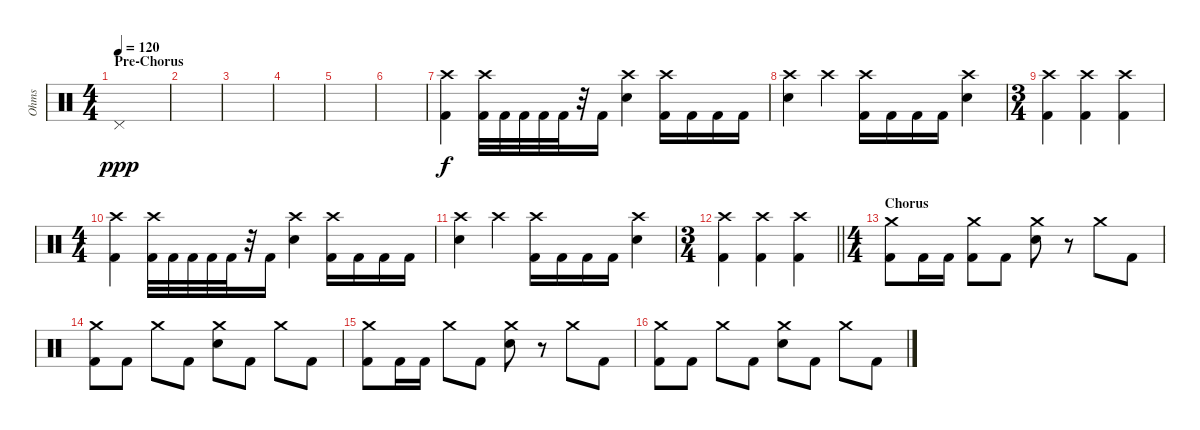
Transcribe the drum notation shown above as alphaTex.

\track ("Ohms" "Ohms") {instrument percussion}
\staff {score}
\articulation defaults
\ts (4 4)
\section ("" "Pre-Chorus")
\tempo 120
\clef neutral
\ks c "Pedal Hi-Hat (hit)".1{dy ppp}
|
|
|
|
|
|
("Crash high (hit)" "Kick (hit) 2").4{dy f} ("Crash high (hit)" "Kick (hit) 2").32 "Kick (hit) 2".32 "Kick (hit) 2".32 "Kick (hit) 2".32 "Kick (hit) 2".32 r.32 "Kick (hit) 2".16 ("Crash high (hit)" "Snare (hit) 2").4 ("Crash high (hit)" "Kick (hit) 2").16 "Kick (hit) 2".16 "Kick (hit) 2".16 "Kick (hit) 2".16 |
("Crash high (hit)" "Snare (hit) 2").4 "Crash high (hit)".4 ("Crash high (hit)" "Kick (hit) 2").16 "Kick (hit) 2".16 "Kick (hit) 2".16 "Kick (hit) 2".16 ("Crash high (hit)" "Snare (hit) 2").4 |
\ts (3 4)
("Crash high (hit)" "Kick (hit) 2").4 ("Crash high (hit)" "Kick (hit) 2").4 ("Crash high (hit)" "Kick (hit) 2").4 |
\ts (4 4)
("Crash high (hit)" "Kick (hit) 2").4 ("Crash high (hit)" "Kick (hit) 2").32 "Kick (hit) 2".32 "Kick (hit) 2".32 "Kick (hit) 2".32 "Kick (hit) 2".32 r.32 "Kick (hit) 2".16 ("Crash high (hit)" "Snare (hit) 2").4 ("Crash high (hit)" "Kick (hit) 2").16 "Kick (hit) 2".16 "Kick (hit) 2".16 "Kick (hit) 2".16 |
("Crash high (hit)" "Snare (hit) 2").4 "Crash high (hit)".4 ("Crash high (hit)" "Kick (hit) 2").16 "Kick (hit) 2".16 "Kick (hit) 2".16 "Kick (hit) 2".16 ("Crash high (hit)" "Snare (hit) 2").4 |
\ts (3 4)
\barLineRight lightlight
("Crash high (hit)" "Kick (hit) 2").4 ("Crash high (hit)" "Kick (hit) 2").4 ("Crash high (hit)" "Kick (hit) 2").4 |
\ts (4 4)
\section ("" "Chorus")
("Crash medium (hit)" "Kick (hit) 2").8 "Kick (hit) 2".16 "Kick (hit) 2".16 ("Crash medium (hit)" "Kick (hit) 2").8 "Kick (hit) 2".8 ("Crash medium (hit)" "Snare (hit) 2").8 r.8 "Crash medium (hit)".8 "Kick (hit) 2".8 |
("Crash medium (hit)" "Kick (hit) 2").8 "Kick (hit) 2".8 "Crash medium (hit)".8 "Kick (hit) 2".8 ("Crash medium (hit)" "Snare (hit) 2").8 "Kick (hit) 2".8 "Crash medium (hit)".8 "Kick (hit) 2".8 |
("Crash medium (hit)" "Kick (hit) 2").8 "Kick (hit) 2".16 "Kick (hit) 2".16 "Crash medium (hit)".8 "Kick (hit) 2".8 ("Crash medium (hit)" "Snare (hit) 2").8 r.8 "Crash medium (hit)".8 "Kick (hit) 2".8 |
("Crash medium (hit)" "Kick (hit) 2").8 "Kick (hit) 2".8 "Crash medium (hit)".8 "Kick (hit) 2".8 ("Crash medium (hit)" "Snare (hit) 2").8 "Kick (hit) 2".8 "Crash medium (hit)".8 "Kick (hit) 2".8
